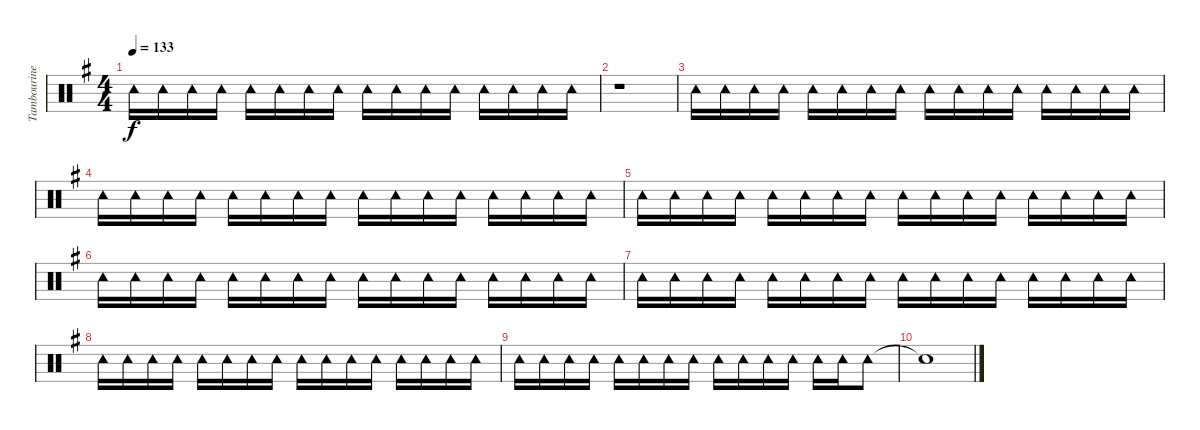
\track ("Tambourine" "Tambourine") {instrument percussion}
\staff {score}
\articulation defaults
\ts (4 4)
\tempo 133
\clef neutral
\ks g "Tambourine (hit)".16{dy f} "Tambourine (hit)".16 "Tambourine (hit)".16 "Tambourine (hit)".16 "Tambourine (hit)".16 "Tambourine (hit)".16 "Tambourine (hit)".16 "Tambourine (hit)".16 "Tambourine (hit)".16 "Tambourine (hit)".16 "Tambourine (hit)".16 "Tambourine (hit)".16 "Tambourine (hit)".16 "Tambourine (hit)".16 "Tambourine (hit)".16 "Tambourine (hit)".16
|
r.1 |
"Tambourine (hit)".16 "Tambourine (hit)".16 "Tambourine (hit)".16 "Tambourine (hit)".16 "Tambourine (hit)".16 "Tambourine (hit)".16 "Tambourine (hit)".16 "Tambourine (hit)".16 "Tambourine (hit)".16 "Tambourine (hit)".16 "Tambourine (hit)".16 "Tambourine (hit)".16 "Tambourine (hit)".16 "Tambourine (hit)".16 "Tambourine (hit)".16 "Tambourine (hit)".16 |
"Tambourine (hit)".16 "Tambourine (hit)".16 "Tambourine (hit)".16 "Tambourine (hit)".16 "Tambourine (hit)".16 "Tambourine (hit)".16 "Tambourine (hit)".16 "Tambourine (hit)".16 "Tambourine (hit)".16 "Tambourine (hit)".16 "Tambourine (hit)".16 "Tambourine (hit)".16 "Tambourine (hit)".16 "Tambourine (hit)".16 "Tambourine (hit)".16 "Tambourine (hit)".16 |
"Tambourine (hit)".16 "Tambourine (hit)".16 "Tambourine (hit)".16 "Tambourine (hit)".16 "Tambourine (hit)".16 "Tambourine (hit)".16 "Tambourine (hit)".16 "Tambourine (hit)".16 "Tambourine (hit)".16 "Tambourine (hit)".16 "Tambourine (hit)".16 "Tambourine (hit)".16 "Tambourine (hit)".16 "Tambourine (hit)".16 "Tambourine (hit)".16 "Tambourine (hit)".16 |
"Tambourine (hit)".16 "Tambourine (hit)".16 "Tambourine (hit)".16 "Tambourine (hit)".16 "Tambourine (hit)".16 "Tambourine (hit)".16 "Tambourine (hit)".16 "Tambourine (hit)".16 "Tambourine (hit)".16 "Tambourine (hit)".16 "Tambourine (hit)".16 "Tambourine (hit)".16 "Tambourine (hit)".16 "Tambourine (hit)".16 "Tambourine (hit)".16 "Tambourine (hit)".16 |
"Tambourine (hit)".16 "Tambourine (hit)".16 "Tambourine (hit)".16 "Tambourine (hit)".16 "Tambourine (hit)".16 "Tambourine (hit)".16 "Tambourine (hit)".16 "Tambourine (hit)".16 "Tambourine (hit)".16 "Tambourine (hit)".16 "Tambourine (hit)".16 "Tambourine (hit)".16 "Tambourine (hit)".16 "Tambourine (hit)".16 "Tambourine (hit)".16 "Tambourine (hit)".16 |
"Tambourine (hit)".16 "Tambourine (hit)".16 "Tambourine (hit)".16 "Tambourine (hit)".16 "Tambourine (hit)".16 "Tambourine (hit)".16 "Tambourine (hit)".16 "Tambourine (hit)".16 "Tambourine (hit)".16 "Tambourine (hit)".16 "Tambourine (hit)".16 "Tambourine (hit)".16 "Tambourine (hit)".16 "Tambourine (hit)".16 "Tambourine (hit)".16 "Tambourine (hit)".16 |
"Tambourine (hit)".16 "Tambourine (hit)".16 "Tambourine (hit)".16 "Tambourine (hit)".16 "Tambourine (hit)".16 "Tambourine (hit)".16 "Tambourine (hit)".16 "Tambourine (hit)".16 "Tambourine (hit)".16 "Tambourine (hit)".16 "Tambourine (hit)".16 "Tambourine (hit)".16 "Tambourine (hit)".16 "Tambourine (hit)".16 "Tambourine (hit)".8 |
"Snare (hit)"{t}.1
